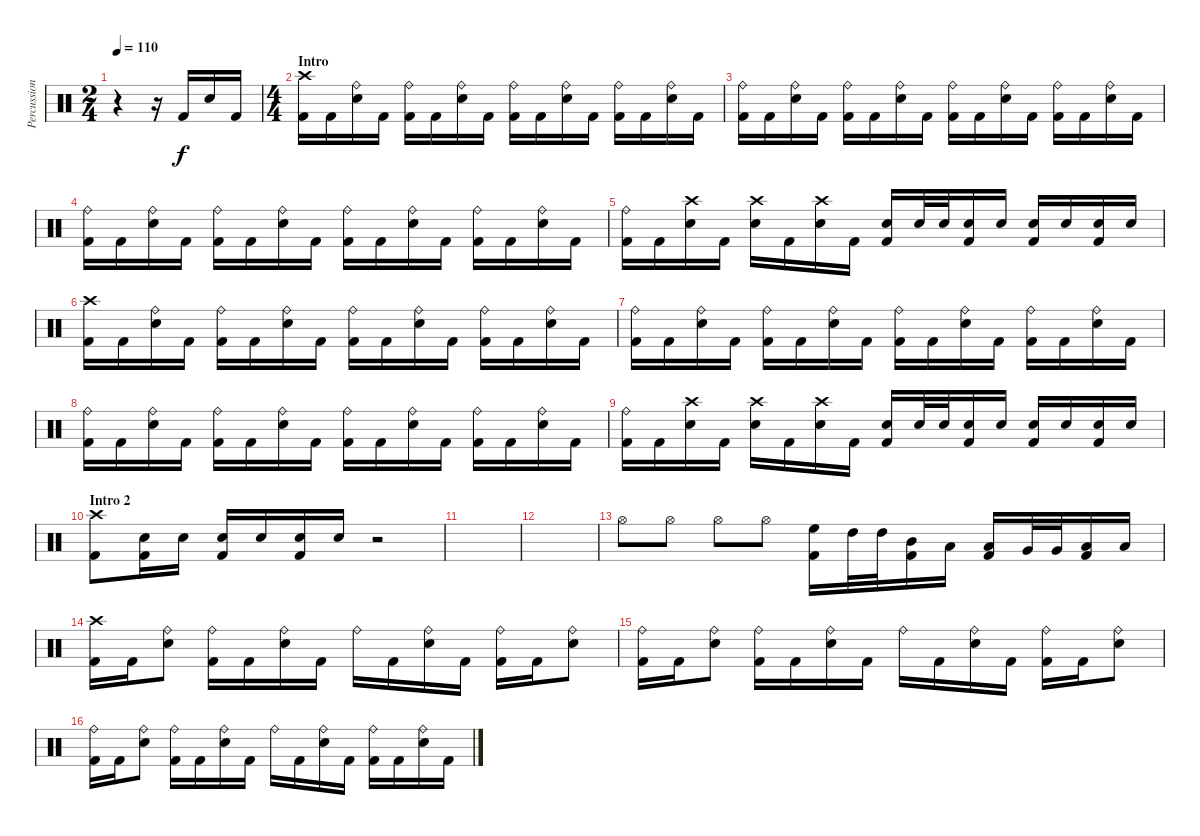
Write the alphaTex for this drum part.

\track ("Percussion" "Percussion") {instrument percussion}
\staff {score}
\articulation defaults
\ts (2 4)
\tempo 110
\clef neutral
\ks c
r.4{dy f} r.16 "Kick (hit) 2".16 "Electric Snare (hit)".16 "Kick (hit) 2".16 |
\ts (4 4)
\section ("" "Intro")
("Kick (hit) 2" "Crash high (hit)").16 "Kick (hit) 2".16 ("Electric Snare (hit)" "Ride (bell)").16 "Kick (hit) 2".16 ("Kick (hit) 2" "Ride (bell)").16 "Kick (hit) 2".16 ("Electric Snare (hit)" "Ride (bell)").16 "Kick (hit) 2".16 ("Kick (hit) 2" "Ride (bell)").16 "Kick (hit) 2".16 ("Electric Snare (hit)" "Ride (bell)").16 "Kick (hit) 2".16 ("Kick (hit) 2" "Ride (bell)").16 "Kick (hit) 2".16 ("Electric Snare (hit)" "Ride (bell)").16 "Kick (hit) 2".16 |
("Kick (hit) 2" "Ride (bell)").16 "Kick (hit) 2".16 ("Electric Snare (hit)" "Ride (bell)").16 "Kick (hit) 2".16 ("Kick (hit) 2" "Ride (bell)").16 "Kick (hit) 2".16 ("Electric Snare (hit)" "Ride (bell)").16 "Kick (hit) 2".16 ("Kick (hit) 2" "Ride (bell)").16 "Kick (hit) 2".16 ("Electric Snare (hit)" "Ride (bell)").16 "Kick (hit) 2".16 ("Kick (hit) 2" "Ride (bell)").16 "Kick (hit) 2".16 ("Electric Snare (hit)" "Ride (bell)").16 "Kick (hit) 2".16 |
("Kick (hit) 2" "Ride (bell)").16 "Kick (hit) 2".16 ("Electric Snare (hit)" "Ride (bell)").16 "Kick (hit) 2".16 ("Kick (hit) 2" "Ride (bell)").16 "Kick (hit) 2".16 ("Electric Snare (hit)" "Ride (bell)").16 "Kick (hit) 2".16 ("Kick (hit) 2" "Ride (bell)").16 "Kick (hit) 2".16 ("Electric Snare (hit)" "Ride (bell)").16 "Kick (hit) 2".16 ("Kick (hit) 2" "Ride (bell)").16 "Kick (hit) 2".16 ("Electric Snare (hit)" "Ride (bell)").16 "Kick (hit) 2".16 |
("Kick (hit) 2" "Ride (bell)").16 "Kick (hit) 2".16 ("Electric Snare (hit)" "Crash high (hit)").16 "Kick (hit) 2".16 ("Electric Snare (hit)" "Crash high (hit)").16 "Kick (hit) 2".16 ("Electric Snare (hit)" "Crash high (hit)").16 "Kick (hit) 2".16 ("Electric Snare (hit)" "Kick (hit) 2").16 "Electric Snare (hit)".32 "Electric Snare (hit)".32 ("Electric Snare (hit)" "Kick (hit) 2").16 "Electric Snare (hit)".16 ("Electric Snare (hit)" "Kick (hit) 2").16 "Electric Snare (hit)".16 ("Electric Snare (hit)" "Kick (hit) 2").16 "Electric Snare (hit)".16 |
("Kick (hit) 2" "Crash high (hit)").16 "Kick (hit) 2".16 ("Electric Snare (hit)" "Ride (bell)").16 "Kick (hit) 2".16 ("Kick (hit) 2" "Ride (bell)").16 "Kick (hit) 2".16 ("Electric Snare (hit)" "Ride (bell)").16 "Kick (hit) 2".16 ("Kick (hit) 2" "Ride (bell)").16 "Kick (hit) 2".16 ("Electric Snare (hit)" "Ride (bell)").16 "Kick (hit) 2".16 ("Kick (hit) 2" "Ride (bell)").16 "Kick (hit) 2".16 ("Electric Snare (hit)" "Ride (bell)").16 "Kick (hit) 2".16 |
("Kick (hit) 2" "Ride (bell)").16 "Kick (hit) 2".16 ("Electric Snare (hit)" "Ride (bell)").16 "Kick (hit) 2".16 ("Kick (hit) 2" "Ride (bell)").16 "Kick (hit) 2".16 ("Electric Snare (hit)" "Ride (bell)").16 "Kick (hit) 2".16 ("Kick (hit) 2" "Ride (bell)").16 "Kick (hit) 2".16 ("Electric Snare (hit)" "Ride (bell)").16 "Kick (hit) 2".16 ("Kick (hit) 2" "Ride (bell)").16 "Kick (hit) 2".16 ("Electric Snare (hit)" "Ride (bell)").16 "Kick (hit) 2".16 |
("Kick (hit) 2" "Ride (bell)").16 "Kick (hit) 2".16 ("Electric Snare (hit)" "Ride (bell)").16 "Kick (hit) 2".16 ("Kick (hit) 2" "Ride (bell)").16 "Kick (hit) 2".16 ("Electric Snare (hit)" "Ride (bell)").16 "Kick (hit) 2".16 ("Kick (hit) 2" "Ride (bell)").16 "Kick (hit) 2".16 ("Electric Snare (hit)" "Ride (bell)").16 "Kick (hit) 2".16 ("Kick (hit) 2" "Ride (bell)").16 "Kick (hit) 2".16 ("Electric Snare (hit)" "Ride (bell)").16 "Kick (hit) 2".16 |
("Kick (hit) 2" "Ride (bell)").16 "Kick (hit) 2".16 ("Electric Snare (hit)" "Crash high (hit)").16 "Kick (hit) 2".16 ("Electric Snare (hit)" "Crash high (hit)").16 "Kick (hit) 2".16 ("Electric Snare (hit)" "Crash high (hit)").16 "Kick (hit) 2".16 ("Electric Snare (hit)" "Kick (hit) 2").16 "Electric Snare (hit)".32 "Electric Snare (hit)".32 ("Electric Snare (hit)" "Kick (hit) 2").16 "Electric Snare (hit)".16 ("Electric Snare (hit)" "Kick (hit) 2").16 "Electric Snare (hit)".16 ("Electric Snare (hit)" "Kick (hit) 2").16 "Electric Snare (hit)".16 |
\section ("" "Intro 2")
("Kick (hit) 2" "Crash high (hit)").8 ("Electric Snare (hit)" "Kick (hit) 2").16 "Electric Snare (hit)".16 ("Electric Snare (hit)" "Kick (hit) 2").16 "Electric Snare (hit)".16 ("Electric Snare (hit)" "Kick (hit) 2").16 "Electric Snare (hit)".16 r.2 |
|
|
"Hi-Hat (open)".8 "Hi-Hat (open)".8 "Hi-Hat (open)".8 "Hi-Hat (open)".8 ("High Floor Tom (hit)" "Kick (hit) 2").16 "High Tom (hit)".32 "High Tom (hit)".32 ("Mid Tom (hit)" "Kick (hit) 2").16 "Low Tom (hit)".16 ("Low Tom (hit)" "Kick (hit) 2").16 "Very Low Tom (hit)".32 "Very Low Tom (hit)".32 ("Low Floor Tom (hit)" "Kick (hit) 2").16 "Low Floor Tom (hit)".16 |
("Kick (hit) 2" "Crash high (hit)").16 "Kick (hit) 2".16 ("Electric Snare (hit)" "Ride (bell)").8 ("Kick (hit) 2" "Ride (bell)").16 "Kick (hit) 2".16 ("Electric Snare (hit)" "Ride (bell)").16 "Kick (hit) 2".16 "Ride (bell)".16 "Kick (hit) 2".16 ("Electric Snare (hit)" "Ride (bell)").16 "Kick (hit) 2".16 ("Kick (hit) 2" "Ride (bell)").16 "Kick (hit) 2".16 ("Electric Snare (hit)" "Ride (bell)").8 |
("Kick (hit) 2" "Ride (bell)").16 "Kick (hit) 2".16 ("Electric Snare (hit)" "Ride (bell)").8 ("Kick (hit) 2" "Ride (bell)").16 "Kick (hit) 2".16 ("Electric Snare (hit)" "Ride (bell)").16 "Kick (hit) 2".16 "Ride (bell)".16 "Kick (hit) 2".16 ("Electric Snare (hit)" "Ride (bell)").16 "Kick (hit) 2".16 ("Kick (hit) 2" "Ride (bell)").16 "Kick (hit) 2".16 ("Electric Snare (hit)" "Ride (bell)").8 |
("Kick (hit) 2" "Ride (bell)").16 "Kick (hit) 2".16 ("Electric Snare (hit)" "Ride (bell)").8 ("Kick (hit) 2" "Ride (bell)").16 "Kick (hit) 2".16 ("Electric Snare (hit)" "Ride (bell)").16 "Kick (hit) 2".16 "Ride (bell)".16 "Kick (hit) 2".16 ("Electric Snare (hit)" "Ride (bell)").16 "Kick (hit) 2".16 ("Kick (hit) 2" "Ride (bell)").16 "Kick (hit) 2".16 ("Electric Snare (hit)" "Ride (bell)").16 "Kick (hit) 2".16
